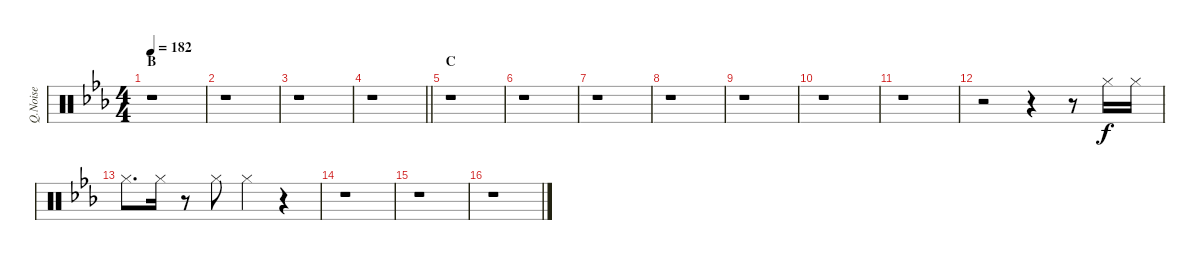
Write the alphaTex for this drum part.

\track ("Q.Noise" "Q.Noise") {instrument percussion}
\staff {score}
\articulation defaults
\ts (4 4)
\section ("" "B")
\tempo 182
\clef neutral
\ks eb
r.1{dy f} |
r.1 |
r.1 |
\barLineRight lightlight
r.1 |
\section ("" "C")
r.1 |
r.1 |
r.1 |
r.1 |
r.1 |
r.1 |
r.1 |
r.2 r.4 r.8 "Hi-Hat (closed)".16 "Hi-Hat (closed)".16 |
"Hi-Hat (closed)".8{d} "Hi-Hat (closed)".16 r.8 "Hi-Hat (closed)".8 "Hi-Hat (closed)".4 r.4 |
r.1 |
r.1 |
r.1
